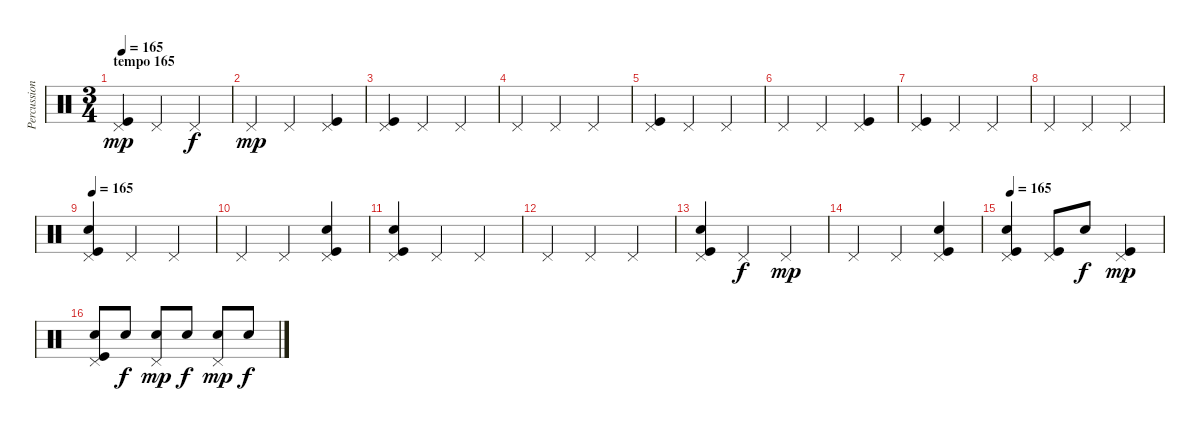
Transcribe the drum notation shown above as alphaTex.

\track ("Percussion" "Percussion") {instrument percussion}
\staff {score}
\articulation defaults
\ts (3 4)
\section ("" "tempo 165")
\tempo 165
\clef neutral
\ks c
("Pedal Hi-Hat (hit)" "Kick (hit)").4{dy mp} "Pedal Hi-Hat (hit)".4 "Pedal Hi-Hat (hit)".4{dy f} |
"Pedal Hi-Hat (hit)".4{dy mp} "Pedal Hi-Hat (hit)".4 ("Pedal Hi-Hat (hit)" "Kick (hit)").4 |
("Pedal Hi-Hat (hit)" "Kick (hit)").4 "Pedal Hi-Hat (hit)".4 "Pedal Hi-Hat (hit)".4 |
"Pedal Hi-Hat (hit)".4 "Pedal Hi-Hat (hit)".4 "Pedal Hi-Hat (hit)".4 |
("Pedal Hi-Hat (hit)" "Kick (hit)").4 "Pedal Hi-Hat (hit)".4 "Pedal Hi-Hat (hit)".4 |
"Pedal Hi-Hat (hit)".4 "Pedal Hi-Hat (hit)".4 ("Pedal Hi-Hat (hit)" "Kick (hit)").4 |
("Pedal Hi-Hat (hit)" "Kick (hit)").4 "Pedal Hi-Hat (hit)".4 "Pedal Hi-Hat (hit)".4 |
"Pedal Hi-Hat (hit)".4 "Pedal Hi-Hat (hit)".4 "Pedal Hi-Hat (hit)".4 |
\section ("" "")
\tempo 165
("Electric Snare (hit)" "Pedal Hi-Hat (hit)" "Kick (hit)").4 "Pedal Hi-Hat (hit)".4 "Pedal Hi-Hat (hit)".4 |
"Pedal Hi-Hat (hit)".4 "Pedal Hi-Hat (hit)".4 ("Electric Snare (hit)" "Pedal Hi-Hat (hit)" "Kick (hit)").4 |
("Electric Snare (hit)" "Pedal Hi-Hat (hit)" "Kick (hit)").4 "Pedal Hi-Hat (hit)".4 "Pedal Hi-Hat (hit)".4 |
"Pedal Hi-Hat (hit)".4 "Pedal Hi-Hat (hit)".4 "Pedal Hi-Hat (hit)".4 |
("Electric Snare (hit)" "Pedal Hi-Hat (hit)" "Kick (hit)").4 "Pedal Hi-Hat (hit)".4{dy f} "Pedal Hi-Hat (hit)".4{dy mp} |
"Pedal Hi-Hat (hit)".4 "Pedal Hi-Hat (hit)".4 ("Electric Snare (hit)" "Pedal Hi-Hat (hit)" "Kick (hit)").4 |
\tempo 165
("Electric Snare (hit)" "Pedal Hi-Hat (hit)" "Kick (hit)").4 ("Pedal Hi-Hat (hit)" "Kick (hit)").8 "Electric Snare (hit)".8{dy f} ("Pedal Hi-Hat (hit)" "Kick (hit)").4{dy mp} |
("Pedal Hi-Hat (hit)" "Electric Snare (hit)" "Kick (hit)").8 "Electric Snare (hit)".8{dy f} ("Pedal Hi-Hat (hit)" "Electric Snare (hit)").8{dy mp} "Electric Snare (hit)".8{dy f} ("Pedal Hi-Hat (hit)" "Electric Snare (hit)").8{dy mp} "Electric Snare (hit)".8{dy f}
